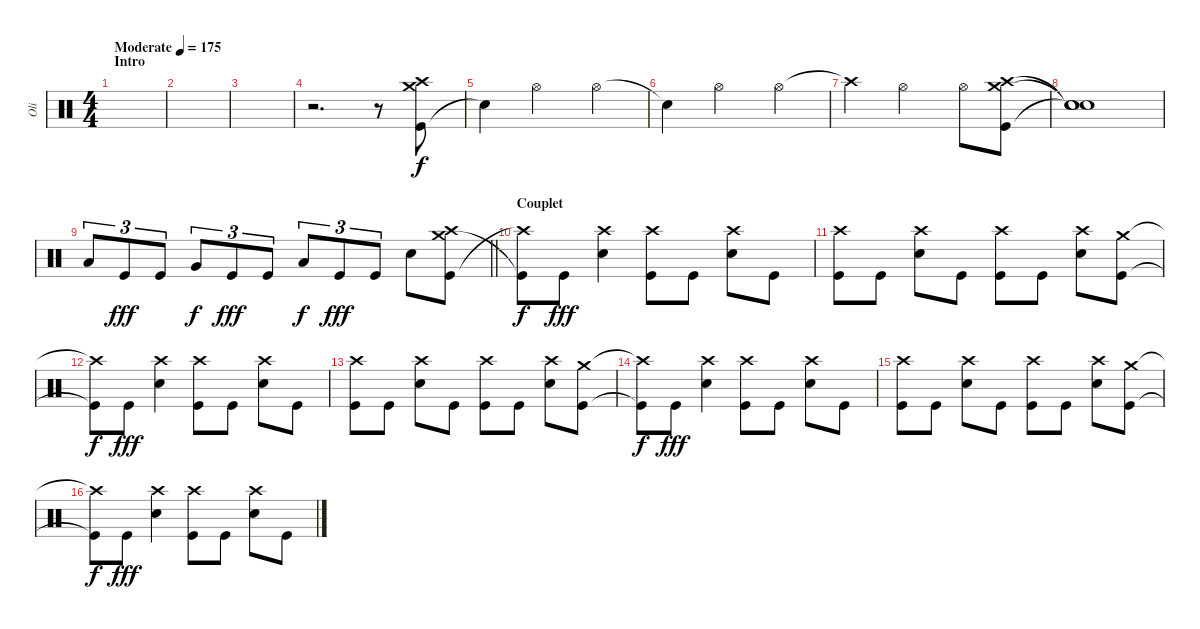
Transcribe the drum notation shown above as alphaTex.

\track ("Oli" "Oli") {instrument percussion}
\staff {score}
\articulation defaults
\ts (4 4)
\section ("" "Intro")
\tempo (175 "Moderate")
\clef neutral
\ks c
|
|
|
r.2{d} r.8 ("Kick (hit)" "Crash medium (hit)" "Crash high (hit)").8 |
"Snare (hit)"{t}.4 "Hi-Hat (open)".2 "Hi-Hat (open)".4 |
"Snare (hit)"{t}.4 "Hi-Hat (open)".2 "Hi-Hat (open)".4 |
"Crash high (hit)"{t}.4 "Hi-Hat (open)".2 "Hi-Hat (open)".8 ("Kick (hit)" "Crash high (hit)" "Crash medium (hit)").8 |
("Snare (hit)"{t} "Snare (hit)"{t} "Snare (hit)"{t}).1 |
\barLineRight lightlight "Low Tom (hit)".8{tu (3 2)} "Kick (hit)".8{tu (3 2) dy fff} "Kick (hit)".8{tu (3 2)} "Very Low Tom (hit)".8{tu (3 2) dy f} "Kick (hit)".8{tu (3 2) dy fff} "Kick (hit)".8{tu (3 2)} "Low Floor Tom (hit)".8{tu (3 2) dy f} "Kick (hit)".8{tu (3 2) dy fff} "Kick (hit)".8{tu (3 2)} "Snare (hit) 2".8
("Kick (hit)" "Crash medium (hit)" "Crash high (hit)").8 |
\section ("" "Couplet")
("Crash high (hit)"{t} "Kick (hit)"{t}).8{dy f} "Kick (hit)".8{dy fff} ("Crash high (hit)" "Snare (hit) 2").4 ("Crash high (hit)" "Kick (hit)").8 "Kick (hit)".8 ("Crash high (hit)" "Snare (hit) 2").8 "Kick (hit)".8 |
("Crash high (hit)" "Kick (hit)").8 "Kick (hit)".8 ("Crash high (hit)" "Snare (hit) 2").8 "Kick (hit)".8 ("Crash high (hit)" "Kick (hit)").8 "Kick (hit)".8 ("Crash high (hit)" "Snare (hit) 2").8 ("Crash medium (hit)" "Kick (hit)").8 |
("Crash high (hit)"{t} "Kick (hit)"{t}).8{dy f} "Kick (hit)".8{dy fff} ("Crash high (hit)" "Snare (hit) 2").4 ("Crash high (hit)" "Kick (hit)").8 "Kick (hit)".8 ("Crash high (hit)" "Snare (hit) 2").8 "Kick (hit)".8 |
("Crash high (hit)" "Kick (hit)").8 "Kick (hit)".8 ("Crash high (hit)" "Snare (hit) 2").8 "Kick (hit)".8 ("Crash high (hit)" "Kick (hit)").8 "Kick (hit)".8 ("Crash high (hit)" "Snare (hit) 2").8 ("Crash medium (hit)" "Kick (hit)").8 |
("Crash high (hit)"{t} "Kick (hit)"{t}).8{dy f} "Kick (hit)".8{dy fff} ("Crash high (hit)" "Snare (hit) 2").4 ("Crash high (hit)" "Kick (hit)").8 "Kick (hit)".8 ("Crash high (hit)" "Snare (hit) 2").8 "Kick (hit)".8 |
("Crash high (hit)" "Kick (hit)").8 "Kick (hit)".8 ("Crash high (hit)" "Snare (hit) 2").8 "Kick (hit)".8 ("Crash high (hit)" "Kick (hit)").8 "Kick (hit)".8 ("Crash high (hit)" "Snare (hit) 2").8 ("Crash medium (hit)" "Kick (hit)").8 |
("Crash high (hit)"{t} "Kick (hit)"{t}).8{dy f} "Kick (hit)".8{dy fff} ("Crash high (hit)" "Snare (hit) 2").4 ("Crash high (hit)" "Kick (hit)").8 "Kick (hit)".8 ("Crash high (hit)" "Snare (hit) 2").8 "Kick (hit)".8
